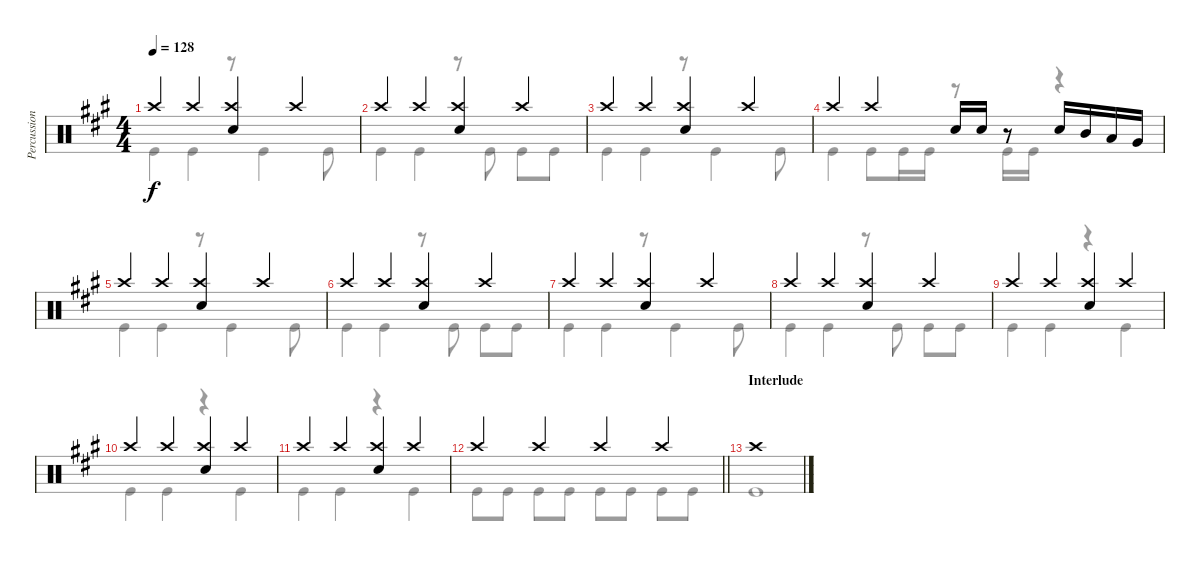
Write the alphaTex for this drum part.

\track ("Percussion" "Percussion") {instrument percussion}
\staff {score}
\articulation defaults
\voice
\ts (4 4)
\tempo 128
\clef neutral
\ks f#minor "Crash high (hit)".4{dy f} "Crash high (hit)".4
("Crash high (hit)" "Electric Snare (hit)").4 "Crash high (hit)".4 |
"Crash high (hit)".4 "Crash high (hit)".4 ("Crash high (hit)" "Electric Snare (hit)").4 "Crash high (hit)".4 |
"Crash high (hit)".4 "Crash high (hit)".4 ("Crash high (hit)" "Electric Snare (hit)").4 "Crash high (hit)".4 |
"Crash high (hit)".4 "Crash high (hit)".4 "Electric Snare (hit)".16 "Electric Snare (hit)".16 r.8 "Electric Snare (hit)".16 "Mid Tom (hit)".16 "Low Tom (hit)".16 "Very Low Tom (hit)".16 |
"Crash high (hit)".4 "Crash high (hit)".4 ("Crash high (hit)" "Electric Snare (hit)").4 "Crash high (hit)".4 |
"Crash high (hit)".4 "Crash high (hit)".4 ("Crash high (hit)" "Electric Snare (hit)").4 "Crash high (hit)".4 |
"Crash high (hit)".4 "Crash high (hit)".4 ("Crash high (hit)" "Electric Snare (hit)").4 "Crash high (hit)".4 |
"Crash high (hit)".4 "Crash high (hit)".4 ("Crash high (hit)" "Electric Snare (hit)").4 "Crash high (hit)".4 |
"Crash high (hit)".4 "Crash high (hit)".4 ("Crash high (hit)" "Electric Snare (hit)").4 "Crash high (hit)".4 |
"Crash high (hit)".4 "Crash high (hit)".4 ("Crash high (hit)" "Electric Snare (hit)").4 "Crash high (hit)".4 |
"Crash high (hit)".4 "Crash high (hit)".4 ("Crash high (hit)" "Electric Snare (hit)").4 "Crash high (hit)".4 |
\barLineRight lightlight "Crash high (hit)".4 "Crash high (hit)".4 "Crash high (hit)".4 "Crash high (hit)".4
|
\section ("" "Interlude")
"Crash high (hit)".1 |
|
|
\voice
\clef neutral
\ottava regular
\simile none
\ks f#minor "Kick (hit)".4{dy f} "Kick (hit)".4
r.8 "Kick (hit)".4 "Kick (hit)".8 |
"Kick (hit)".4 "Kick (hit)".4 r.8 "Kick (hit)".8 "Kick (hit)".8 "Kick (hit)".8 |
"Kick (hit)".4 "Kick (hit)".4 r.8 "Kick (hit)".4 "Kick (hit)".8 |
"Kick (hit)".4 "Kick (hit)".8 "Kick (hit)".16 "Kick (hit)".16 r.8 "Kick (hit)".16 "Kick (hit)".16 r.4 |
"Kick (hit)".4 "Kick (hit)".4 r.8 "Kick (hit)".4 "Kick (hit)".8 |
"Kick (hit)".4 "Kick (hit)".4 r.8 "Kick (hit)".8 "Kick (hit)".8 "Kick (hit)".8 |
"Kick (hit)".4 "Kick (hit)".4 r.8 "Kick (hit)".4 "Kick (hit)".8 |
"Kick (hit)".4 "Kick (hit)".4 r.8 "Kick (hit)".8 "Kick (hit)".8 "Kick (hit)".8 |
"Kick (hit)".4 "Kick (hit)".4 r.4 "Kick (hit)".4 |
"Kick (hit)".4 "Kick (hit)".4 r.4 "Kick (hit)".4 |
"Kick (hit)".4 "Kick (hit)".4 r.4 "Kick (hit)".4 |
\barLineRight lightlight "Kick (hit)".8 "Kick (hit)".8 "Kick (hit)".8 "Kick (hit)".8 "Kick (hit)".8 "Kick (hit)".8 "Kick (hit)".8 "Kick (hit)".8
|
"Kick (hit)".1 |
|
|
